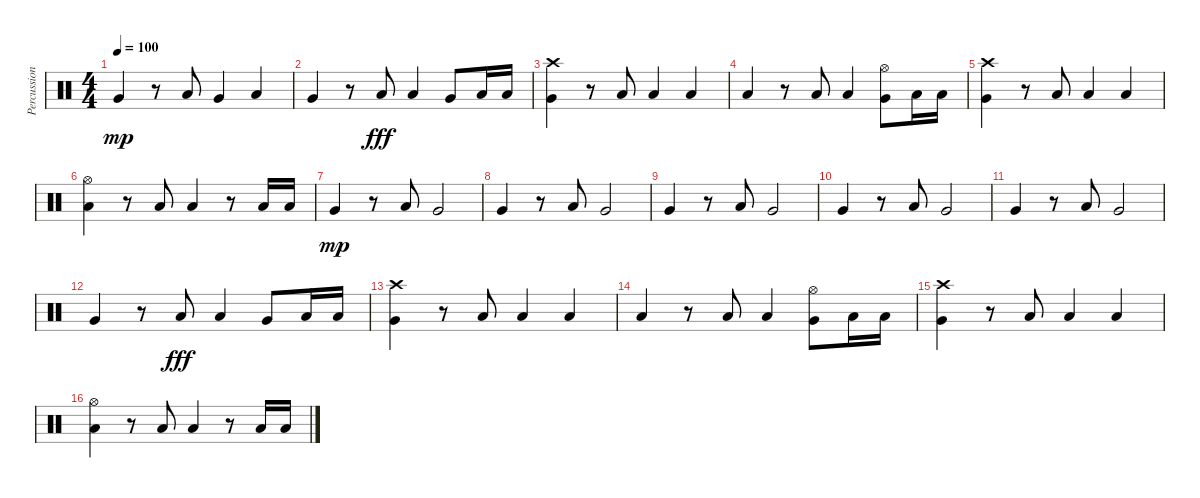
\track ("Percussion" "Percussion") {instrument percussion}
\staff {score}
\articulation defaults
\ts (4 4)
\tempo 100
\clef neutral
\ks c "Very Low Tom (hit)".4{dy mp}
r.8 "Low Tom (hit)".8 "Very Low Tom (hit)".4 "Low Floor Tom (hit)".4 |
"Very Low Tom (hit)".4 r.8 "Low Tom (hit)".8{dy fff} "Low Tom (hit)".4 "Very Low Tom (hit)".8 "Low Floor Tom (hit)".16 "Low Floor Tom (hit)".16 |
("Very Low Tom (hit)" "Crash high (hit)").4 r.8 "Low Tom (hit)".8 "Low Tom (hit)".4 "Low Floor Tom (hit)".4 |
"Low Tom (hit)".4 r.8 "Low Tom (hit)".8 "Low Tom (hit)".4 ("Very Low Tom (hit)" "Hi-Hat (open)").8 "Low Floor Tom (hit)".16 "Low Floor Tom (hit)".16 |
("Very Low Tom (hit)" "Crash high (hit)").4 r.8 "Low Tom (hit)".8 "Low Tom (hit)".4 "Low Floor Tom (hit)".4 |
("Low Tom (hit)" "Hi-Hat (open)").4 r.8 "Low Tom (hit)".8 "Low Tom (hit)".4 r.8 "Low Floor Tom (hit)".16 "Low Floor Tom (hit)".16 |
"Very Low Tom (hit)".4{dy mp} r.8 "Low Tom (hit)".8 "Very Low Tom (hit)".2 |
"Very Low Tom (hit)".4 r.8 "Low Tom (hit)".8 "Very Low Tom (hit)".2 |
"Very Low Tom (hit)".4 r.8 "Low Tom (hit)".8 "Very Low Tom (hit)".2 |
"Very Low Tom (hit)".4 r.8 "Low Tom (hit)".8 "Very Low Tom (hit)".2 |
"Very Low Tom (hit)".4 r.8 "Low Tom (hit)".8 "Very Low Tom (hit)".2 |
"Very Low Tom (hit)".4 r.8 "Low Tom (hit)".8{dy fff} "Low Tom (hit)".4 "Very Low Tom (hit)".8 "Low Floor Tom (hit)".16 "Low Floor Tom (hit)".16 |
("Very Low Tom (hit)" "Crash high (hit)").4 r.8 "Low Tom (hit)".8 "Low Tom (hit)".4 "Low Floor Tom (hit)".4 |
"Low Tom (hit)".4 r.8 "Low Tom (hit)".8 "Low Tom (hit)".4 ("Very Low Tom (hit)" "Hi-Hat (open)").8 "Low Floor Tom (hit)".16 "Low Floor Tom (hit)".16 |
("Very Low Tom (hit)" "Crash high (hit)").4 r.8 "Low Tom (hit)".8 "Low Tom (hit)".4 "Low Floor Tom (hit)".4 |
("Low Tom (hit)" "Hi-Hat (open)").4 r.8 "Low Tom (hit)".8 "Low Tom (hit)".4 r.8 "Low Floor Tom (hit)".16 "Low Floor Tom (hit)".16
